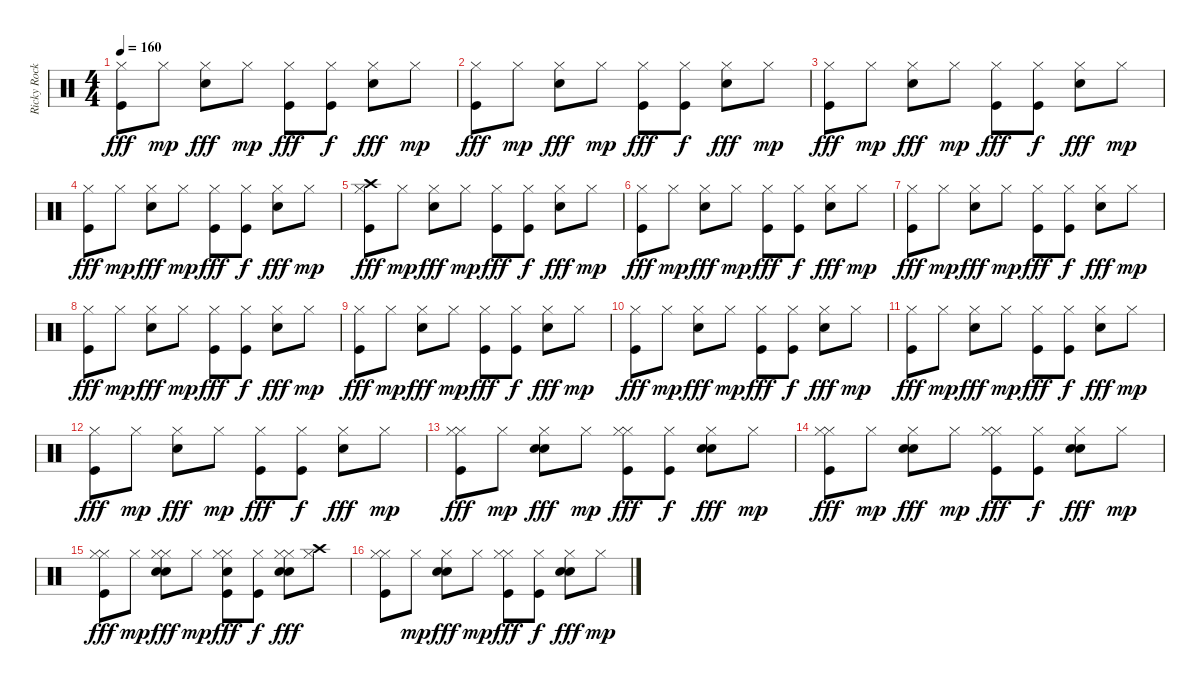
\track ("Ricky Rockett" "Ricky Rock") {instrument percussion}
\staff {score}
\articulation defaults
\ts (4 4)
\tempo 160
\clef neutral
\ks c
("Hi-Hat (closed)" "Kick (hit)").8{dy fff} "Hi-Hat (closed)".8{dy mp} ("Snare (hit) 2" "Hi-Hat (closed)").8{dy fff} "Hi-Hat (closed)".8{dy mp} ("Hi-Hat (closed)" "Kick (hit)").8{dy fff} ("Hi-Hat (closed)" "Kick (hit)").8{dy f} ("Snare (hit) 2" "Hi-Hat (closed)").8{dy fff} "Hi-Hat (closed)".8{dy mp} |
("Hi-Hat (closed)" "Kick (hit)").8{dy fff} "Hi-Hat (closed)".8{dy mp} ("Snare (hit) 2" "Hi-Hat (closed)").8{dy fff} "Hi-Hat (closed)".8{dy mp} ("Hi-Hat (closed)" "Kick (hit)").8{dy fff} ("Hi-Hat (closed)" "Kick (hit)").8{dy f} ("Snare (hit) 2" "Hi-Hat (closed)").8{dy fff} "Hi-Hat (closed)".8{dy mp} |
("Hi-Hat (closed)" "Kick (hit)").8{dy fff} "Hi-Hat (closed)".8{dy mp} ("Snare (hit) 2" "Hi-Hat (closed)").8{dy fff} "Hi-Hat (closed)".8{dy mp} ("Hi-Hat (closed)" "Kick (hit)").8{dy fff} ("Hi-Hat (closed)" "Kick (hit)").8{dy f} ("Snare (hit) 2" "Hi-Hat (closed)").8{dy fff} "Hi-Hat (closed)".8{dy mp} |
("Hi-Hat (closed)" "Kick (hit)").8{dy fff} "Hi-Hat (closed)".8{dy mp} ("Snare (hit) 2" "Hi-Hat (closed)").8{dy fff} "Hi-Hat (closed)".8{dy mp} ("Hi-Hat (closed)" "Kick (hit)").8{dy fff} ("Hi-Hat (closed)" "Kick (hit)").8{dy f} ("Snare (hit) 2" "Hi-Hat (closed)").8{dy fff} "Hi-Hat (closed)".8{dy mp} |
("Hi-Hat (closed)" "Kick (hit)" "Crash high (hit)").8{dy fff} "Hi-Hat (closed)".8{dy mp} ("Snare (hit) 2" "Hi-Hat (closed)").8{dy fff} "Hi-Hat (closed)".8{dy mp} ("Hi-Hat (closed)" "Kick (hit)").8{dy fff} ("Hi-Hat (closed)" "Kick (hit)").8{dy f} ("Snare (hit) 2" "Hi-Hat (closed)").8{dy fff} "Hi-Hat (closed)".8{dy mp} |
("Hi-Hat (closed)" "Kick (hit)").8{dy fff} "Hi-Hat (closed)".8{dy mp} ("Snare (hit) 2" "Hi-Hat (closed)").8{dy fff} "Hi-Hat (closed)".8{dy mp} ("Hi-Hat (closed)" "Kick (hit)").8{dy fff} ("Hi-Hat (closed)" "Kick (hit)").8{dy f} ("Snare (hit) 2" "Hi-Hat (closed)").8{dy fff} "Hi-Hat (closed)".8{dy mp} |
("Hi-Hat (closed)" "Kick (hit)").8{dy fff} "Hi-Hat (closed)".8{dy mp} ("Snare (hit) 2" "Hi-Hat (closed)").8{dy fff} "Hi-Hat (closed)".8{dy mp} ("Hi-Hat (closed)" "Kick (hit)").8{dy fff} ("Hi-Hat (closed)" "Kick (hit)").8{dy f} ("Snare (hit) 2" "Hi-Hat (closed)").8{dy fff} "Hi-Hat (closed)".8{dy mp} |
("Hi-Hat (closed)" "Kick (hit)").8{dy fff} "Hi-Hat (closed)".8{dy mp} ("Snare (hit) 2" "Hi-Hat (closed)").8{dy fff} "Hi-Hat (closed)".8{dy mp} ("Hi-Hat (closed)" "Kick (hit)").8{dy fff} ("Hi-Hat (closed)" "Kick (hit)").8{dy f} ("Snare (hit) 2" "Hi-Hat (closed)").8{dy fff} "Hi-Hat (closed)".8{dy mp} |
("Hi-Hat (closed)" "Kick (hit)").8{dy fff} "Hi-Hat (closed)".8{dy mp} ("Snare (hit) 2" "Hi-Hat (closed)").8{dy fff} "Hi-Hat (closed)".8{dy mp} ("Hi-Hat (closed)" "Kick (hit)").8{dy fff} ("Hi-Hat (closed)" "Kick (hit)").8{dy f} ("Snare (hit) 2" "Hi-Hat (closed)").8{dy fff} "Hi-Hat (closed)".8{dy mp} |
("Hi-Hat (closed)" "Kick (hit)").8{dy fff} "Hi-Hat (closed)".8{dy mp} ("Snare (hit) 2" "Hi-Hat (closed)").8{dy fff} "Hi-Hat (closed)".8{dy mp} ("Hi-Hat (closed)" "Kick (hit)").8{dy fff} ("Hi-Hat (closed)" "Kick (hit)").8{dy f} ("Snare (hit) 2" "Hi-Hat (closed)").8{dy fff} "Hi-Hat (closed)".8{dy mp} |
("Hi-Hat (closed)" "Kick (hit)").8{dy fff} "Hi-Hat (closed)".8{dy mp} ("Snare (hit) 2" "Hi-Hat (closed)").8{dy fff} "Hi-Hat (closed)".8{dy mp} ("Hi-Hat (closed)" "Kick (hit)").8{dy fff} ("Hi-Hat (closed)" "Kick (hit)").8{dy f} ("Snare (hit) 2" "Hi-Hat (closed)").8{dy fff} "Hi-Hat (closed)".8{dy mp} |
("Hi-Hat (closed)" "Kick (hit)").8{dy fff} "Hi-Hat (closed)".8{dy mp} ("Snare (hit) 2" "Hi-Hat (closed)").8{dy fff} "Hi-Hat (closed)".8{dy mp} ("Hi-Hat (closed)" "Kick (hit)").8{dy fff} ("Hi-Hat (closed)" "Kick (hit)").8{dy f} ("Snare (hit) 2" "Hi-Hat (closed)").8{dy fff} "Hi-Hat (closed)".8{dy mp} |
("Hi-Hat (closed)" "Kick (hit)" "Hi-Hat (closed)").8{dy fff} "Hi-Hat (closed)".8{dy mp} ("Snare (hit) 2" "Hi-Hat (closed)" "Electric Snare (hit)").8{dy fff} "Hi-Hat (closed)".8{dy mp} ("Hi-Hat (closed)" "Kick (hit)" "Hi-Hat (closed)").8{dy fff} ("Hi-Hat (closed)" "Kick (hit)").8{dy f} ("Snare (hit) 2" "Hi-Hat (closed)" "Electric Snare (hit)").8{dy fff} "Hi-Hat (closed)".8{dy mp} |
("Hi-Hat (closed)" "Kick (hit)" "Hi-Hat (closed)").8{dy fff} "Hi-Hat (closed)".8{dy mp} ("Snare (hit) 2" "Hi-Hat (closed)" "Electric Snare (hit)").8{dy fff} "Hi-Hat (closed)".8{dy mp} ("Hi-Hat (closed)" "Kick (hit)" "Hi-Hat (closed)").8{dy fff} ("Hi-Hat (closed)" "Kick (hit)").8{dy f} ("Snare (hit) 2" "Hi-Hat (closed)" "Electric Snare (hit)").8{dy fff} "Hi-Hat (closed)".8{dy mp} |
("Hi-Hat (closed)" "Kick (hit)" "Hi-Hat (closed)").8{dy fff} "Hi-Hat (closed)".8{dy mp} ("Snare (hit) 2" "Hi-Hat (closed)" "Hi-Hat (closed)" "Electric Snare (hit)").8{dy fff} "Hi-Hat (closed)".8{dy mp} ("Hi-Hat (closed)" "Kick (hit)" "Hi-Hat (closed)" "Electric Snare (hit)").8{dy fff} ("Hi-Hat (closed)" "Kick (hit)").8{dy f} ("Snare (hit) 2" "Hi-Hat (closed)" "Hi-Hat (closed)" "Electric Snare (hit)").8{dy fff} ("Hi-Hat (closed)" "Crash high (hit)").8 |
("Hi-Hat (closed)" "Kick (hit)" "Hi-Hat (closed)").8 "Hi-Hat (closed)".8{dy mp} ("Snare (hit) 2" "Hi-Hat (closed)" "Electric Snare (hit)").8{dy fff} "Hi-Hat (closed)".8{dy mp} ("Hi-Hat (closed)" "Kick (hit)" "Hi-Hat (closed)").8{dy fff} ("Hi-Hat (closed)" "Kick (hit)").8{dy f} ("Snare (hit) 2" "Hi-Hat (closed)" "Electric Snare (hit)").8{dy fff} "Hi-Hat (closed)".8{dy mp}
